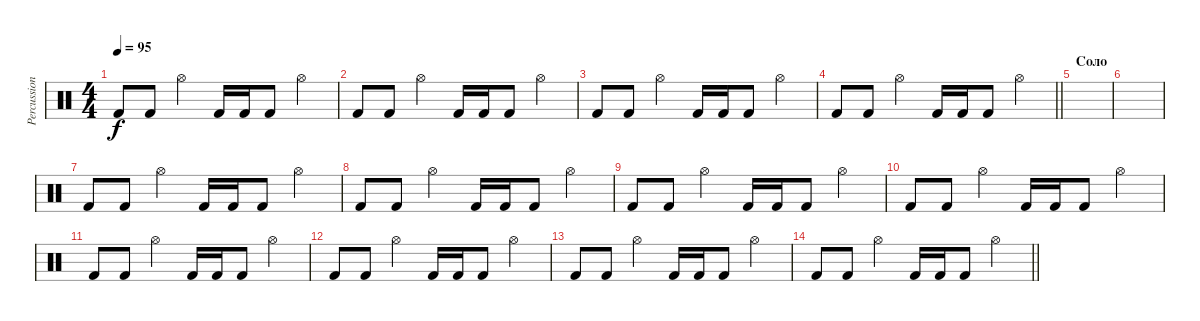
\track ("Percussion" "Percussion") {instrument percussion}
\staff {score}
\articulation defaults
\ts (4 4)
\tempo 95
\clef neutral
\ks c "Kick (hit) 2".8{dy f} "Kick (hit) 2".8 "Hi-Hat (open)".4 "Kick (hit) 2".16 "Kick (hit) 2".16 "Kick (hit) 2".8 "Hi-Hat (open)".4
|
"Kick (hit) 2".8 "Kick (hit) 2".8 "Hi-Hat (open)".4 "Kick (hit) 2".16 "Kick (hit) 2".16 "Kick (hit) 2".8 "Hi-Hat (open)".4 |
"Kick (hit) 2".8 "Kick (hit) 2".8 "Hi-Hat (open)".4 "Kick (hit) 2".16 "Kick (hit) 2".16 "Kick (hit) 2".8 "Hi-Hat (open)".4 |
\barLineRight lightlight "Kick (hit) 2".8 "Kick (hit) 2".8 "Hi-Hat (open)".4 "Kick (hit) 2".16 "Kick (hit) 2".16 "Kick (hit) 2".8 "Hi-Hat (open)".4
|
\section ("" "Соло")
|
|
"Kick (hit) 2".8 "Kick (hit) 2".8 "Hi-Hat (open)".4 "Kick (hit) 2".16 "Kick (hit) 2".16 "Kick (hit) 2".8 "Hi-Hat (open)".4 |
"Kick (hit) 2".8 "Kick (hit) 2".8 "Hi-Hat (open)".4 "Kick (hit) 2".16 "Kick (hit) 2".16 "Kick (hit) 2".8 "Hi-Hat (open)".4 |
"Kick (hit) 2".8 "Kick (hit) 2".8 "Hi-Hat (open)".4 "Kick (hit) 2".16 "Kick (hit) 2".16 "Kick (hit) 2".8 "Hi-Hat (open)".4 |
"Kick (hit) 2".8 "Kick (hit) 2".8 "Hi-Hat (open)".4 "Kick (hit) 2".16 "Kick (hit) 2".16 "Kick (hit) 2".8 "Hi-Hat (open)".4 |
"Kick (hit) 2".8 "Kick (hit) 2".8 "Hi-Hat (open)".4 "Kick (hit) 2".16 "Kick (hit) 2".16 "Kick (hit) 2".8 "Hi-Hat (open)".4 |
"Kick (hit) 2".8 "Kick (hit) 2".8 "Hi-Hat (open)".4 "Kick (hit) 2".16 "Kick (hit) 2".16 "Kick (hit) 2".8 "Hi-Hat (open)".4 |
"Kick (hit) 2".8 "Kick (hit) 2".8 "Hi-Hat (open)".4 "Kick (hit) 2".16 "Kick (hit) 2".16 "Kick (hit) 2".8 "Hi-Hat (open)".4 |
\barLineRight lightlight "Kick (hit) 2".8 "Kick (hit) 2".8 "Hi-Hat (open)".4 "Kick (hit) 2".16 "Kick (hit) 2".16 "Kick (hit) 2".8 "Hi-Hat (open)".4
